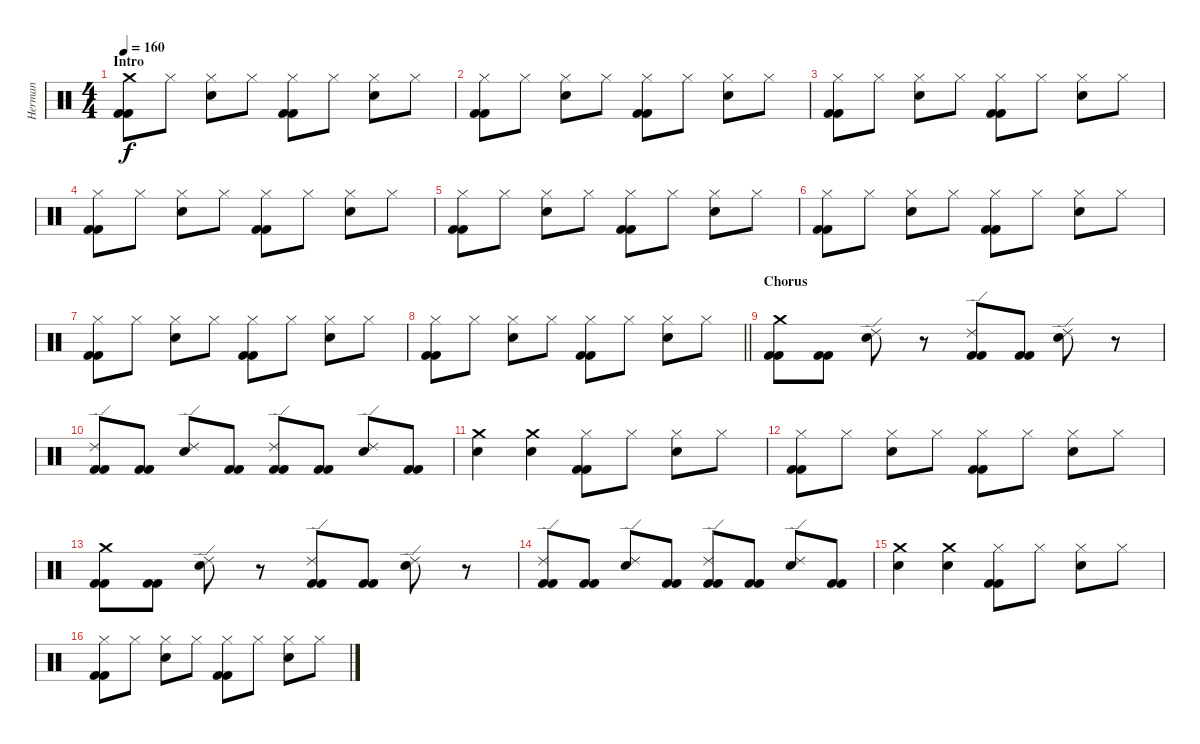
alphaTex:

\track ("Herman" "Herman") {instrument percussion}
\staff {score}
\articulation defaults
\ts (4 4)
\section ("" "Intro")
\tempo 160
\clef neutral
\ks c
("Kick (hit) 2" "Kick (hit) 2" "Crash medium (hit)").8{dy f} "Hi-Hat (closed)".8 ("Electric Snare (hit)" "Hi-Hat (closed)").8 "Hi-Hat (closed)".8 ("Hi-Hat (closed)" "Kick (hit) 2" "Kick (hit) 2").8 "Hi-Hat (closed)".8 ("Electric Snare (hit)" "Hi-Hat (closed)").8 "Hi-Hat (closed)".8 |
("Kick (hit) 2" "Kick (hit) 2" "Hi-Hat (closed)").8 "Hi-Hat (closed)".8 ("Hi-Hat (closed)" "Electric Snare (hit)").8 "Hi-Hat (closed)".8 ("Kick (hit) 2" "Kick (hit) 2" "Hi-Hat (closed)").8 "Hi-Hat (closed)".8 ("Hi-Hat (closed)" "Electric Snare (hit)").8 "Hi-Hat (closed)".8 |
("Kick (hit) 2" "Kick (hit) 2" "Hi-Hat (closed)").8 "Hi-Hat (closed)".8 ("Hi-Hat (closed)" "Electric Snare (hit)").8 "Hi-Hat (closed)".8 ("Kick (hit) 2" "Kick (hit) 2" "Hi-Hat (closed)").8 "Hi-Hat (closed)".8 ("Hi-Hat (closed)" "Electric Snare (hit)").8 "Hi-Hat (closed)".8 |
("Kick (hit) 2" "Kick (hit) 2" "Hi-Hat (closed)").8 "Hi-Hat (closed)".8 ("Hi-Hat (closed)" "Electric Snare (hit)").8 "Hi-Hat (closed)".8 ("Kick (hit) 2" "Kick (hit) 2" "Hi-Hat (closed)").8 "Hi-Hat (closed)".8 ("Hi-Hat (closed)" "Electric Snare (hit)").8 "Hi-Hat (closed)".8 |
("Kick (hit) 2" "Kick (hit) 2" "Hi-Hat (closed)").8 "Hi-Hat (closed)".8 ("Hi-Hat (closed)" "Electric Snare (hit)").8 "Hi-Hat (closed)".8 ("Kick (hit) 2" "Kick (hit) 2" "Hi-Hat (closed)").8 "Hi-Hat (closed)".8 ("Hi-Hat (closed)" "Electric Snare (hit)").8 "Hi-Hat (closed)".8 |
("Kick (hit) 2" "Kick (hit) 2" "Hi-Hat (closed)").8 "Hi-Hat (closed)".8 ("Hi-Hat (closed)" "Electric Snare (hit)").8 "Hi-Hat (closed)".8 ("Kick (hit) 2" "Kick (hit) 2" "Hi-Hat (closed)").8 "Hi-Hat (closed)".8 ("Hi-Hat (closed)" "Electric Snare (hit)").8 "Hi-Hat (closed)".8 |
("Kick (hit) 2" "Kick (hit) 2" "Hi-Hat (closed)").8 "Hi-Hat (closed)".8 ("Hi-Hat (closed)" "Electric Snare (hit)").8 "Hi-Hat (closed)".8 ("Kick (hit) 2" "Kick (hit) 2" "Hi-Hat (closed)").8 "Hi-Hat (closed)".8 ("Hi-Hat (closed)" "Electric Snare (hit)").8 "Hi-Hat (closed)".8 |
\barLineRight lightlight
("Kick (hit) 2" "Kick (hit) 2" "Hi-Hat (closed)").8 "Hi-Hat (closed)".8 ("Hi-Hat (closed)" "Electric Snare (hit)").8 "Hi-Hat (closed)".8 ("Kick (hit) 2" "Kick (hit) 2" "Hi-Hat (closed)").8 "Hi-Hat (closed)".8 ("Hi-Hat (closed)" "Electric Snare (hit)").8 "Hi-Hat (closed)".8 |
\section ("" "Chorus")
("Crash medium (hit)" "Kick (hit) 2" "Kick (hit) 2").8 ("Kick (hit) 2" "Kick (hit) 2").8 ("Electric Snare (hit)" "Ride (edge) 2").8 r.8 ("Ride (edge) 2" "Kick (hit) 2" "Kick (hit) 2").8 ("Kick (hit) 2" "Kick (hit) 2").8 ("Electric Snare (hit)" "Ride (edge) 2").8 r.8 |
("Kick (hit) 2" "Kick (hit) 2" "Ride (edge) 2").8 ("Kick (hit) 2" "Kick (hit) 2").8 ("Electric Snare (hit)" "Ride (edge) 2").8 ("Kick (hit) 2" "Kick (hit) 2").8 ("Kick (hit) 2" "Kick (hit) 2" "Ride (edge) 2").8 ("Kick (hit) 2" "Kick (hit) 2").8 ("Electric Snare (hit)" "Ride (edge) 2").8 ("Kick (hit) 2" "Kick (hit) 2").8 |
("Crash medium (hit)" "Electric Snare (hit)").4 ("Crash medium (hit)" "Electric Snare (hit)").4 ("Hi-Hat (closed)" "Kick (hit) 2" "Kick (hit) 2").8 "Hi-Hat (closed)".8 ("Electric Snare (hit)" "Hi-Hat (closed)").8 "Hi-Hat (closed)".8 |
("Kick (hit) 2" "Kick (hit) 2" "Hi-Hat (closed)").8 "Hi-Hat (closed)".8 ("Hi-Hat (closed)" "Electric Snare (hit)").8 "Hi-Hat (closed)".8 ("Hi-Hat (closed)" "Kick (hit) 2" "Kick (hit) 2").8 "Hi-Hat (closed)".8 ("Electric Snare (hit)" "Hi-Hat (closed)").8 "Hi-Hat (closed)".8 |
("Crash medium (hit)" "Kick (hit) 2" "Kick (hit) 2").8 ("Kick (hit) 2" "Kick (hit) 2").8 ("Electric Snare (hit)" "Ride (edge) 2").8 r.8 ("Ride (edge) 2" "Kick (hit) 2" "Kick (hit) 2").8 ("Kick (hit) 2" "Kick (hit) 2").8 ("Electric Snare (hit)" "Ride (edge) 2").8 r.8 |
("Kick (hit) 2" "Kick (hit) 2" "Ride (edge) 2").8 ("Kick (hit) 2" "Kick (hit) 2").8 ("Electric Snare (hit)" "Ride (edge) 2").8 ("Kick (hit) 2" "Kick (hit) 2").8 ("Kick (hit) 2" "Kick (hit) 2" "Ride (edge) 2").8 ("Kick (hit) 2" "Kick (hit) 2").8 ("Electric Snare (hit)" "Ride (edge) 2").8 ("Kick (hit) 2" "Kick (hit) 2").8 |
("Crash medium (hit)" "Electric Snare (hit)").4 ("Crash medium (hit)" "Electric Snare (hit)").4 ("Hi-Hat (closed)" "Kick (hit) 2" "Kick (hit) 2").8 "Hi-Hat (closed)".8 ("Electric Snare (hit)" "Hi-Hat (closed)").8 "Hi-Hat (closed)".8 |
("Kick (hit) 2" "Kick (hit) 2" "Hi-Hat (closed)").8 "Hi-Hat (closed)".8 ("Hi-Hat (closed)" "Electric Snare (hit)").8 "Hi-Hat (closed)".8 ("Hi-Hat (closed)" "Kick (hit) 2" "Kick (hit) 2").8 "Hi-Hat (closed)".8 ("Electric Snare (hit)" "Hi-Hat (closed)").8 "Hi-Hat (closed)".8
